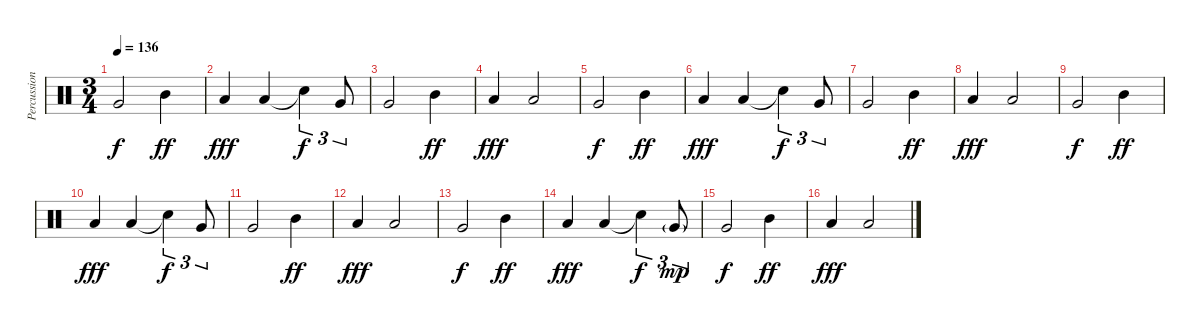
\track ("Percussions / Stephen Van Haestregt" "Percussion") {instrument percussion}
\staff {score}
\articulation defaults
\ts (3 4)
\tempo 136
\clef neutral
\ks c "Very Low Tom (hit)".2{dy f} "Mid Tom (hit)".4{dy ff}
|
"Low Tom (hit)".4{dy fff} "Low Tom (hit)".4 "Snare (hit)"{t}.4{tu (3 2) dy f} "Very Low Tom (hit)".8{tu (3 2)} |
"Very Low Tom (hit)".2 "Mid Tom (hit)".4{dy ff} |
"Low Tom (hit)".4{dy fff} "Low Tom (hit)".2 |
"Very Low Tom (hit)".2{dy f} "Mid Tom (hit)".4{dy ff} |
"Low Tom (hit)".4{dy fff} "Low Tom (hit)".4 "Snare (hit)"{t}.4{tu (3 2) dy f} "Very Low Tom (hit)".8{tu (3 2)} |
"Very Low Tom (hit)".2 "Mid Tom (hit)".4{dy ff} |
"Low Tom (hit)".4{dy fff} "Low Tom (hit)".2 |
"Very Low Tom (hit)".2{dy f} "Mid Tom (hit)".4{dy ff} |
"Low Tom (hit)".4{dy fff} "Low Tom (hit)".4 "Snare (hit)"{t}.4{tu (3 2) dy f} "Very Low Tom (hit)".8{tu (3 2)} |
"Very Low Tom (hit)".2 "Mid Tom (hit)".4{dy ff} |
"Low Tom (hit)".4{dy fff} "Low Tom (hit)".2 |
"Very Low Tom (hit)".2{dy f} "Mid Tom (hit)".4{dy ff} |
"Low Tom (hit)".4{dy fff} "Low Tom (hit)".4 "Snare (hit)"{t}.4{tu (3 2) dy f} "Very Low Tom (hit)"{g}.8{tu (3 2) dy mp} |
"Very Low Tom (hit)".2{dy f} "Mid Tom (hit)".4{dy ff} |
"Low Tom (hit)".4{dy fff} "Low Tom (hit)".2
